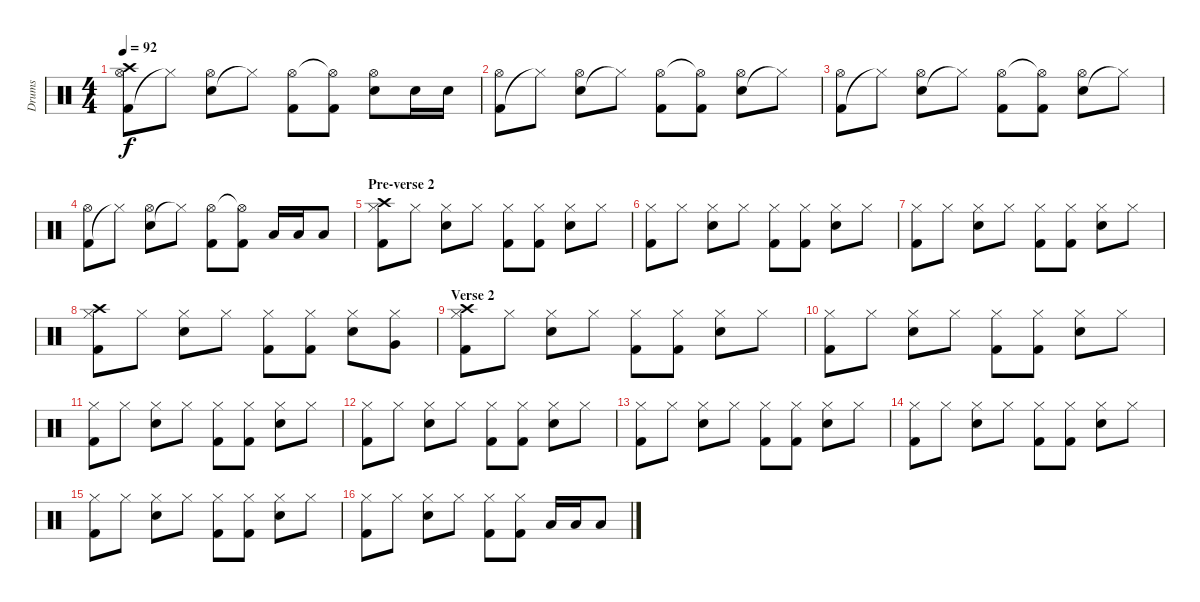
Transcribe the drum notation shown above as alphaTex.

\track ("Drums" "Drums") {instrument percussion}
\staff {score}
\articulation defaults
\ts (4 4)
\tempo 92
\clef neutral
\ks c
("Kick (hit) 2" "Hi-Hat (open)" "Crash high (hit)").8{dy f} "Hi-Hat (closed)"{t}.8 ("Electric Snare (hit)" "Hi-Hat (open)").8 "Hi-Hat (closed)"{t}.8 ("Kick (hit) 2" "Hi-Hat (open)").8 ("Kick (hit) 2" "Hi-Hat (open)"{t}).8 ("Electric Snare (hit)" "Hi-Hat (open)").8 "Electric Snare (hit)".16 "Electric Snare (hit)".16 |
("Kick (hit) 2" "Hi-Hat (open)").8 "Hi-Hat (closed)"{t}.8 ("Electric Snare (hit)" "Hi-Hat (open)").8 "Hi-Hat (closed)"{t}.8 ("Kick (hit) 2" "Hi-Hat (open)").8 ("Kick (hit) 2" "Hi-Hat (open)"{t}).8 ("Electric Snare (hit)" "Hi-Hat (open)").8 "Hi-Hat (closed)"{t}.8 |
("Kick (hit) 2" "Hi-Hat (open)").8 "Hi-Hat (closed)"{t}.8 ("Electric Snare (hit)" "Hi-Hat (open)").8 "Hi-Hat (closed)"{t}.8 ("Kick (hit) 2" "Hi-Hat (open)").8 ("Kick (hit) 2" "Hi-Hat (open)"{t}).8 ("Electric Snare (hit)" "Hi-Hat (open)").8 "Hi-Hat (closed)"{t}.8 |
("Kick (hit) 2" "Hi-Hat (open)").8 "Hi-Hat (closed)"{t}.8 ("Electric Snare (hit)" "Hi-Hat (open)").8 "Hi-Hat (closed)"{t}.8 ("Kick (hit) 2" "Hi-Hat (open)").8 ("Kick (hit) 2" "Hi-Hat (open)"{t}).8 "Low Floor Tom (hit)".16 "Low Floor Tom (hit)".16 "Low Floor Tom (hit)".8 |
\section ("" "Pre-verse 2")
("Kick (hit) 2" "Hi-Hat (closed)" "Crash high (hit)").8 "Hi-Hat (closed)".8 ("Electric Snare (hit)" "Hi-Hat (closed)").8 "Hi-Hat (closed)".8 ("Kick (hit) 2" "Hi-Hat (closed)").8 ("Kick (hit) 2" "Hi-Hat (closed)").8 ("Electric Snare (hit)" "Hi-Hat (closed)").8 "Hi-Hat (closed)".8 |
("Kick (hit) 2" "Hi-Hat (closed)").8 "Hi-Hat (closed)".8 ("Electric Snare (hit)" "Hi-Hat (closed)").8 "Hi-Hat (closed)".8 ("Kick (hit) 2" "Hi-Hat (closed)").8 ("Kick (hit) 2" "Hi-Hat (closed)").8 ("Electric Snare (hit)" "Hi-Hat (closed)").8 "Hi-Hat (closed)".8 |
("Kick (hit) 2" "Hi-Hat (closed)").8 "Hi-Hat (closed)".8 ("Electric Snare (hit)" "Hi-Hat (closed)").8 "Hi-Hat (closed)".8 ("Kick (hit) 2" "Hi-Hat (closed)").8 ("Kick (hit) 2" "Hi-Hat (closed)").8 ("Electric Snare (hit)" "Hi-Hat (closed)").8 "Hi-Hat (closed)".8 |
("Kick (hit) 2" "Hi-Hat (closed)" "Crash high (hit)").8 "Hi-Hat (closed)".8 ("Electric Snare (hit)" "Hi-Hat (closed)").8 "Hi-Hat (closed)".8 ("Kick (hit) 2" "Hi-Hat (closed)").8 ("Kick (hit) 2" "Hi-Hat (closed)").8 ("Electric Snare (hit)" "Hi-Hat (closed)").8 ("Hi-Hat (closed)" "Very Low Tom (hit)").8 |
\section ("" "Verse 2")
("Kick (hit) 2" "Hi-Hat (closed)" "Crash high (hit)").8 "Hi-Hat (closed)".8 ("Electric Snare (hit)" "Hi-Hat (closed)").8 "Hi-Hat (closed)".8 ("Kick (hit) 2" "Hi-Hat (closed)").8 ("Kick (hit) 2" "Hi-Hat (closed)").8 ("Electric Snare (hit)" "Hi-Hat (closed)").8 "Hi-Hat (closed)".8 |
("Kick (hit) 2" "Hi-Hat (closed)").8 "Hi-Hat (closed)".8 ("Electric Snare (hit)" "Hi-Hat (closed)").8 "Hi-Hat (closed)".8 ("Kick (hit) 2" "Hi-Hat (closed)").8 ("Kick (hit) 2" "Hi-Hat (closed)").8 ("Electric Snare (hit)" "Hi-Hat (closed)").8 "Hi-Hat (closed)".8 |
("Kick (hit) 2" "Hi-Hat (closed)").8 "Hi-Hat (closed)".8 ("Electric Snare (hit)" "Hi-Hat (closed)").8 "Hi-Hat (closed)".8 ("Kick (hit) 2" "Hi-Hat (closed)").8 ("Kick (hit) 2" "Hi-Hat (closed)").8 ("Electric Snare (hit)" "Hi-Hat (closed)").8 "Hi-Hat (closed)".8 |
("Kick (hit) 2" "Hi-Hat (closed)").8 "Hi-Hat (closed)".8 ("Electric Snare (hit)" "Hi-Hat (closed)").8 "Hi-Hat (closed)".8 ("Kick (hit) 2" "Hi-Hat (closed)").8 ("Kick (hit) 2" "Hi-Hat (closed)").8 ("Electric Snare (hit)" "Hi-Hat (closed)").8 "Hi-Hat (closed)".8 |
("Kick (hit) 2" "Hi-Hat (closed)").8 "Hi-Hat (closed)".8 ("Electric Snare (hit)" "Hi-Hat (closed)").8 "Hi-Hat (closed)".8 ("Kick (hit) 2" "Hi-Hat (closed)").8 ("Kick (hit) 2" "Hi-Hat (closed)").8 ("Electric Snare (hit)" "Hi-Hat (closed)").8 "Hi-Hat (closed)".8 |
("Kick (hit) 2" "Hi-Hat (closed)").8 "Hi-Hat (closed)".8 ("Electric Snare (hit)" "Hi-Hat (closed)").8 "Hi-Hat (closed)".8 ("Kick (hit) 2" "Hi-Hat (closed)").8 ("Kick (hit) 2" "Hi-Hat (closed)").8 ("Electric Snare (hit)" "Hi-Hat (closed)").8 "Hi-Hat (closed)".8 |
("Kick (hit) 2" "Hi-Hat (closed)").8 "Hi-Hat (closed)".8 ("Electric Snare (hit)" "Hi-Hat (closed)").8 "Hi-Hat (closed)".8 ("Kick (hit) 2" "Hi-Hat (closed)").8 ("Kick (hit) 2" "Hi-Hat (closed)").8 ("Electric Snare (hit)" "Hi-Hat (closed)").8 "Hi-Hat (closed)".8 |
("Kick (hit) 2" "Hi-Hat (closed)").8 "Hi-Hat (closed)".8 ("Electric Snare (hit)" "Hi-Hat (closed)").8 "Hi-Hat (closed)".8 ("Kick (hit) 2" "Hi-Hat (closed)").8 ("Kick (hit) 2" "Hi-Hat (closed)").8 "Low Tom (hit)".16 "Low Tom (hit)".16 "Low Tom (hit)".8
